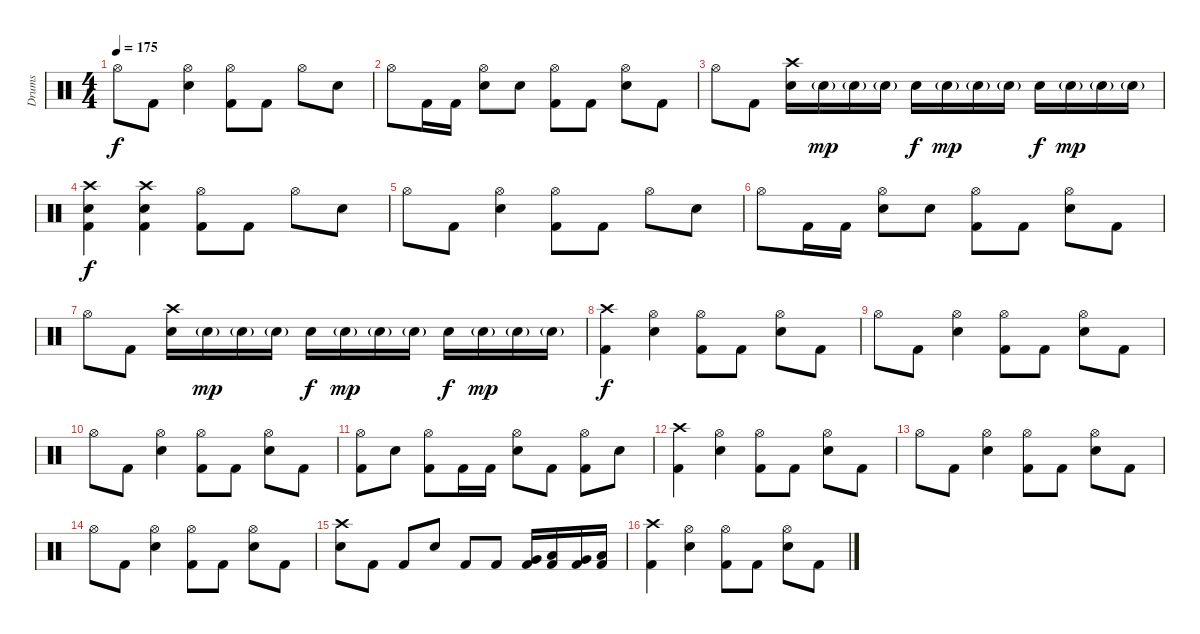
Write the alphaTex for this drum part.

\track ("Drums" "Drums") {instrument percussion}
\staff {score}
\articulation defaults
\ts (4 4)
\tempo 175
\clef neutral
\ks c "Hi-Hat (open)".8{dy f} "Kick (hit) 2".8
("Hi-Hat (open)" "Electric Snare (hit)").4 ("Hi-Hat (open)" "Kick (hit) 2").8 "Kick (hit) 2".8 "Hi-Hat (open)".8 "Electric Snare (hit)".8 |
"Hi-Hat (open)".8 "Kick (hit) 2".16 "Kick (hit) 2".16 ("Hi-Hat (open)" "Electric Snare (hit)").8 "Electric Snare (hit)".8 ("Hi-Hat (open)" "Kick (hit) 2").8 "Kick (hit) 2".8 ("Hi-Hat (open)" "Electric Snare (hit)").8 "Kick (hit) 2".8 |
"Hi-Hat (open)".8 "Kick (hit) 2".8 ("Crash high (hit)" "Electric Snare (hit)").16 "Electric Snare (hit)"{g}.16{dy mp} "Electric Snare (hit)"{g}.16 "Electric Snare (hit)"{g}.16 "Electric Snare (hit)".16{dy f} "Electric Snare (hit)"{g}.16{dy mp} "Electric Snare (hit)"{g}.16 "Electric Snare (hit)"{g}.16 "Electric Snare (hit)".16{dy f} "Electric Snare (hit)"{g}.16{dy mp} "Electric Snare (hit)"{g}.16 "Electric Snare (hit)"{g}.16 |
("Crash high (hit)" "Electric Snare (hit)" "Kick (hit) 2").4{dy f} ("Crash high (hit)" "Electric Snare (hit)" "Kick (hit) 2").4 ("Hi-Hat (open)" "Kick (hit) 2").8 "Kick (hit) 2".8 "Hi-Hat (open)".8 "Electric Snare (hit)".8 |
"Hi-Hat (open)".8 "Kick (hit) 2".8 ("Hi-Hat (open)" "Electric Snare (hit)").4 ("Hi-Hat (open)" "Kick (hit) 2").8 "Kick (hit) 2".8 "Hi-Hat (open)".8 "Electric Snare (hit)".8 |
"Hi-Hat (open)".8 "Kick (hit) 2".16 "Kick (hit) 2".16 ("Hi-Hat (open)" "Electric Snare (hit)").8 "Electric Snare (hit)".8 ("Hi-Hat (open)" "Kick (hit) 2").8 "Kick (hit) 2".8 ("Hi-Hat (open)" "Electric Snare (hit)").8 "Kick (hit) 2".8 |
"Hi-Hat (open)".8 "Kick (hit) 2".8 ("Crash high (hit)" "Electric Snare (hit)").16 "Electric Snare (hit)"{g}.16{dy mp} "Electric Snare (hit)"{g}.16 "Electric Snare (hit)"{g}.16 "Electric Snare (hit)".16{dy f} "Electric Snare (hit)"{g}.16{dy mp} "Electric Snare (hit)"{g}.16 "Electric Snare (hit)"{g}.16 "Electric Snare (hit)".16{dy f} "Electric Snare (hit)"{g}.16{dy mp} "Electric Snare (hit)"{g}.16 "Electric Snare (hit)"{g}.16 |
("Crash high (hit)" "Kick (hit) 2").4{dy f} ("Hi-Hat (open)" "Electric Snare (hit)").4 ("Hi-Hat (open)" "Kick (hit) 2").8 "Kick (hit) 2".8 ("Hi-Hat (open)" "Electric Snare (hit)").8 "Kick (hit) 2".8 |
"Hi-Hat (open)".8 "Kick (hit) 2".8 ("Hi-Hat (open)" "Electric Snare (hit)").4 ("Hi-Hat (open)" "Kick (hit) 2").8 "Kick (hit) 2".8 ("Hi-Hat (open)" "Electric Snare (hit)").8 "Kick (hit) 2".8 |
"Hi-Hat (open)".8 "Kick (hit) 2".8 ("Hi-Hat (open)" "Electric Snare (hit)").4 ("Hi-Hat (open)" "Kick (hit) 2").8 "Kick (hit) 2".8 ("Hi-Hat (open)" "Electric Snare (hit)").8 "Kick (hit) 2".8 |
("Hi-Hat (open)" "Kick (hit) 2").8 "Electric Snare (hit)".8 ("Hi-Hat (open)" "Kick (hit) 2").8 "Kick (hit) 2".16 "Kick (hit) 2".16 ("Hi-Hat (open)" "Electric Snare (hit)").8 "Kick (hit) 2".8 ("Hi-Hat (open)" "Kick (hit) 2").8 "Electric Snare (hit)".8 |
("Crash high (hit)" "Kick (hit) 2").4 ("Hi-Hat (open)" "Electric Snare (hit)").4 ("Hi-Hat (open)" "Kick (hit) 2").8 "Kick (hit) 2".8 ("Hi-Hat (open)" "Electric Snare (hit)").8 "Kick (hit) 2".8 |
"Hi-Hat (open)".8 "Kick (hit) 2".8 ("Hi-Hat (open)" "Electric Snare (hit)").4 ("Hi-Hat (open)" "Kick (hit) 2").8 "Kick (hit) 2".8 ("Hi-Hat (open)" "Electric Snare (hit)").8 "Kick (hit) 2".8 |
"Hi-Hat (open)".8 "Kick (hit) 2".8 ("Hi-Hat (open)" "Electric Snare (hit)").4 ("Hi-Hat (open)" "Kick (hit) 2").8 "Kick (hit) 2".8 ("Hi-Hat (open)" "Electric Snare (hit)").8 "Kick (hit) 2".8 |
("Crash high (hit)" "Electric Snare (hit)").8 "Kick (hit) 2".8 "Kick (hit) 2".8 "Electric Snare (hit)".8 "Kick (hit) 2".8 "Kick (hit) 2".8 ("Very Low Tom (hit)" "Kick (hit) 2").16 ("Low Tom (hit)" "Kick (hit) 2").16 ("Very Low Tom (hit)" "Kick (hit) 2").16 ("Low Floor Tom (hit)" "Kick (hit) 2").16 |
("Crash high (hit)" "Kick (hit) 2").4 ("Hi-Hat (open)" "Electric Snare (hit)").4 ("Hi-Hat (open)" "Kick (hit) 2").8 "Kick (hit) 2".8 ("Hi-Hat (open)" "Electric Snare (hit)").8 "Kick (hit) 2".8
